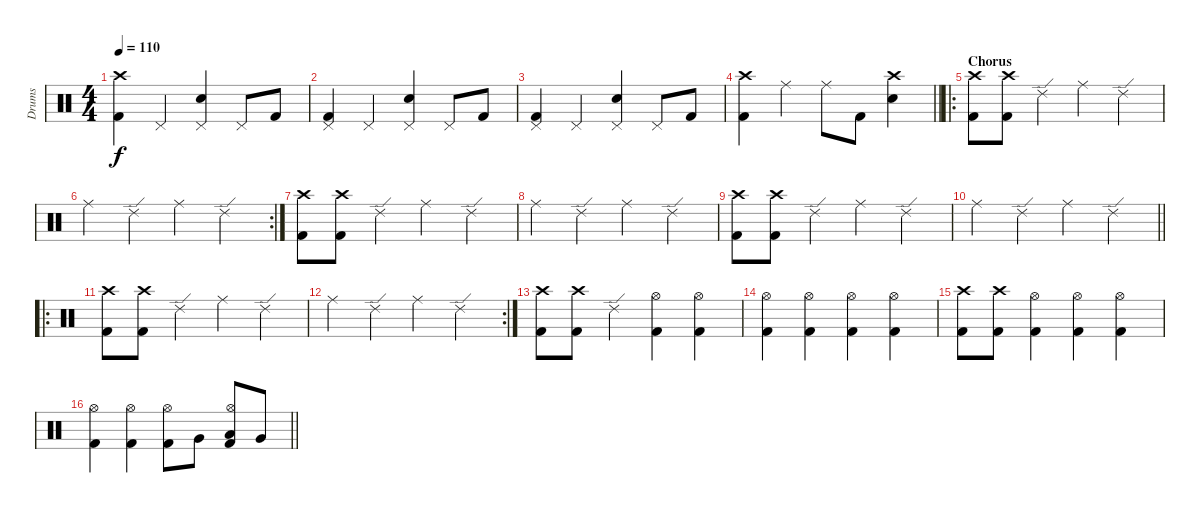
\track ("Drums" "Drums") {instrument percussion}
\staff {score}
\articulation defaults
\ts (4 4)
\section ("" "")
\tempo 110
\clef neutral
\ks c
("Crash high (hit)" "Kick (hit) 2").4{dy f} "Pedal Hi-Hat (hit)".4 ("Pedal Hi-Hat (hit)" "Snare (hit) 2").4 "Pedal Hi-Hat (hit)".8 "Kick (hit) 2".8 |
("Pedal Hi-Hat (hit)" "Kick (hit) 2").4 "Pedal Hi-Hat (hit)".4 ("Pedal Hi-Hat (hit)" "Snare (hit) 2").4 "Pedal Hi-Hat (hit)".8 "Kick (hit) 2".8 |
("Pedal Hi-Hat (hit)" "Kick (hit) 2").4 "Pedal Hi-Hat (hit)".4 ("Pedal Hi-Hat (hit)" "Snare (hit) 2").4 "Pedal Hi-Hat (hit)".8 "Kick (hit) 2".8 |
\barLineRight lightlight
("Crash high (hit)" "Kick (hit) 2").4 "Ride (middle)".4 "Ride (middle)".8 "Kick (hit) 2".8 ("Crash high (hit)" "Snare (hit) 2").4 |
\ro
\section ("" "Chorus")
("Crash high (hit)" "Kick (hit) 2").8 ("Crash high (hit)" "Kick (hit) 2").8 "Ride (edge) 2".4 "Ride (middle)".4 "Ride (edge) 2".4 |
\rc 2 "Ride (middle)".4 "Ride (edge) 2".4 "Ride (middle)".4 "Ride (edge) 2".4
|
("Crash high (hit)" "Kick (hit) 2").8 ("Crash high (hit)" "Kick (hit) 2").8 "Ride (edge) 2".4 "Ride (middle)".4 "Ride (edge) 2".4 |
"Ride (middle)".4 "Ride (edge) 2".4 "Ride (middle)".4 "Ride (edge) 2".4 |
("Crash high (hit)" "Kick (hit) 2").8 ("Crash high (hit)" "Kick (hit) 2").8 "Ride (edge) 2".4 "Ride (middle)".4 "Ride (edge) 2".4 |
\barLineRight lightlight "Ride (middle)".4 "Ride (edge) 2".4 "Ride (middle)".4 "Ride (edge) 2".4
|
\ro
\section ("" "")
("Crash high (hit)" "Kick (hit) 2").8 ("Crash high (hit)" "Kick (hit) 2").8 "Ride (edge) 2".4 "Ride (middle)".4 "Ride (edge) 2".4 |
\rc 2 "Ride (middle)".4 "Ride (edge) 2".4 "Ride (middle)".4 "Ride (edge) 2".4
|
("Crash high (hit)" "Kick (hit) 2").8 ("Crash high (hit)" "Kick (hit) 2").8 "Ride (edge) 2".4 ("Hi-Hat (open)" "Kick (hit) 2").4 ("Hi-Hat (open)" "Kick (hit) 2").4 |
("Hi-Hat (open)" "Kick (hit) 2").4 ("Hi-Hat (open)" "Kick (hit) 2").4 ("Hi-Hat (open)" "Kick (hit) 2").4 ("Hi-Hat (open)" "Kick (hit) 2").4 |
("Crash high (hit)" "Kick (hit) 2").8 ("Crash high (hit)" "Kick (hit) 2").8 ("Hi-Hat (open)" "Kick (hit) 2").4 ("Hi-Hat (open)" "Kick (hit) 2").4 ("Hi-Hat (open)" "Kick (hit) 2").4 |
\barLineRight lightlight
("Hi-Hat (open)" "Kick (hit) 2").4 ("Hi-Hat (open)" "Kick (hit) 2").4 ("Hi-Hat (open)" "Kick (hit) 2").8 "Very Low Tom (hit)".8 ("Hi-Hat (open)" "Low Tom (hit)" "Kick (hit) 2").8 "Very Low Tom (hit)".8
